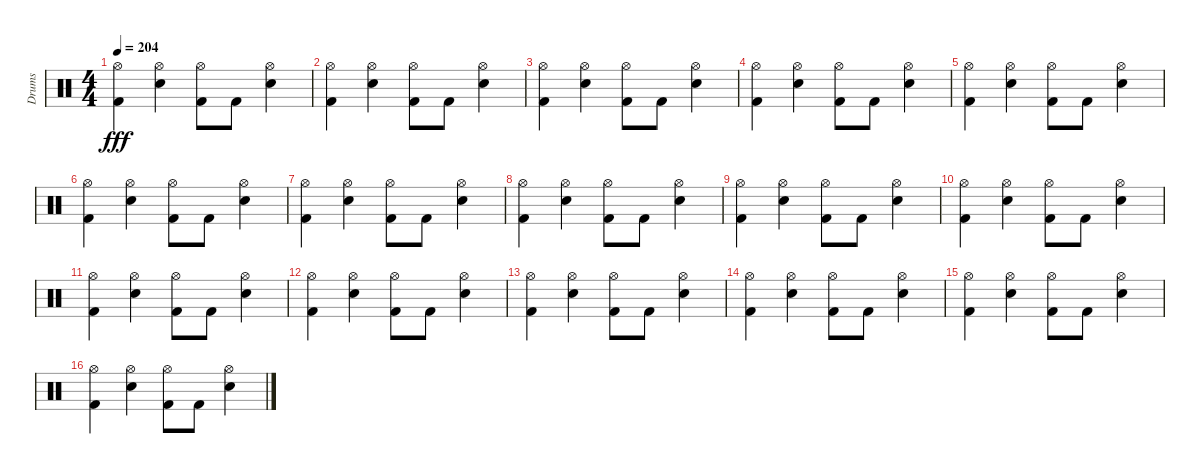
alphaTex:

\track ("Drums" "Drums") {instrument percussion}
\staff {score}
\articulation defaults
\ts (4 4)
\tempo 204
\clef neutral
\ks c
("Hi-Hat (open)" "Kick (hit) 2").4{dy fff} ("Hi-Hat (open)" "Snare (hit) 2").4 ("Hi-Hat (open)" "Kick (hit) 2").8 "Kick (hit) 2".8 ("Hi-Hat (open)" "Snare (hit) 2").4 |
("Hi-Hat (open)" "Kick (hit) 2").4 ("Hi-Hat (open)" "Snare (hit) 2").4 ("Hi-Hat (open)" "Kick (hit) 2").8 "Kick (hit) 2".8 ("Hi-Hat (open)" "Snare (hit) 2").4 |
("Hi-Hat (open)" "Kick (hit) 2").4 ("Hi-Hat (open)" "Snare (hit) 2").4 ("Hi-Hat (open)" "Kick (hit) 2").8 "Kick (hit) 2".8 ("Hi-Hat (open)" "Snare (hit) 2").4 |
("Hi-Hat (open)" "Kick (hit) 2").4 ("Hi-Hat (open)" "Snare (hit) 2").4 ("Hi-Hat (open)" "Kick (hit) 2").8 "Kick (hit) 2".8 ("Hi-Hat (open)" "Snare (hit) 2").4 |
("Hi-Hat (open)" "Kick (hit) 2").4 ("Hi-Hat (open)" "Snare (hit) 2").4 ("Hi-Hat (open)" "Kick (hit) 2").8 "Kick (hit) 2".8 ("Hi-Hat (open)" "Snare (hit) 2").4 |
("Hi-Hat (open)" "Kick (hit) 2").4 ("Hi-Hat (open)" "Snare (hit) 2").4 ("Hi-Hat (open)" "Kick (hit) 2").8 "Kick (hit) 2".8 ("Hi-Hat (open)" "Snare (hit) 2").4 |
("Hi-Hat (open)" "Kick (hit) 2").4 ("Hi-Hat (open)" "Snare (hit) 2").4 ("Hi-Hat (open)" "Kick (hit) 2").8 "Kick (hit) 2".8 ("Hi-Hat (open)" "Snare (hit) 2").4 |
("Hi-Hat (open)" "Kick (hit) 2").4 ("Hi-Hat (open)" "Snare (hit) 2").4 ("Hi-Hat (open)" "Kick (hit) 2").8 "Kick (hit) 2".8 ("Hi-Hat (open)" "Snare (hit) 2").4 |
("Hi-Hat (open)" "Kick (hit) 2").4 ("Hi-Hat (open)" "Snare (hit) 2").4 ("Hi-Hat (open)" "Kick (hit) 2").8 "Kick (hit) 2".8 ("Hi-Hat (open)" "Snare (hit) 2").4 |
("Hi-Hat (open)" "Kick (hit) 2").4 ("Hi-Hat (open)" "Snare (hit) 2").4 ("Hi-Hat (open)" "Kick (hit) 2").8 "Kick (hit) 2".8 ("Hi-Hat (open)" "Snare (hit) 2").4 |
("Hi-Hat (open)" "Kick (hit) 2").4 ("Hi-Hat (open)" "Snare (hit) 2").4 ("Hi-Hat (open)" "Kick (hit) 2").8 "Kick (hit) 2".8 ("Hi-Hat (open)" "Snare (hit) 2").4 |
("Hi-Hat (open)" "Kick (hit) 2").4 ("Hi-Hat (open)" "Snare (hit) 2").4 ("Hi-Hat (open)" "Kick (hit) 2").8 "Kick (hit) 2".8 ("Hi-Hat (open)" "Snare (hit) 2").4 |
("Hi-Hat (open)" "Kick (hit) 2").4 ("Hi-Hat (open)" "Snare (hit) 2").4 ("Hi-Hat (open)" "Kick (hit) 2").8 "Kick (hit) 2".8 ("Hi-Hat (open)" "Snare (hit) 2").4 |
("Hi-Hat (open)" "Kick (hit) 2").4 ("Hi-Hat (open)" "Snare (hit) 2").4 ("Hi-Hat (open)" "Kick (hit) 2").8 "Kick (hit) 2".8 ("Hi-Hat (open)" "Snare (hit) 2").4 |
("Hi-Hat (open)" "Kick (hit) 2").4 ("Hi-Hat (open)" "Snare (hit) 2").4 ("Hi-Hat (open)" "Kick (hit) 2").8 "Kick (hit) 2".8 ("Hi-Hat (open)" "Snare (hit) 2").4 |
("Hi-Hat (open)" "Kick (hit) 2").4 ("Hi-Hat (open)" "Snare (hit) 2").4 ("Hi-Hat (open)" "Kick (hit) 2").8 "Kick (hit) 2".8 ("Hi-Hat (open)" "Snare (hit) 2").4
